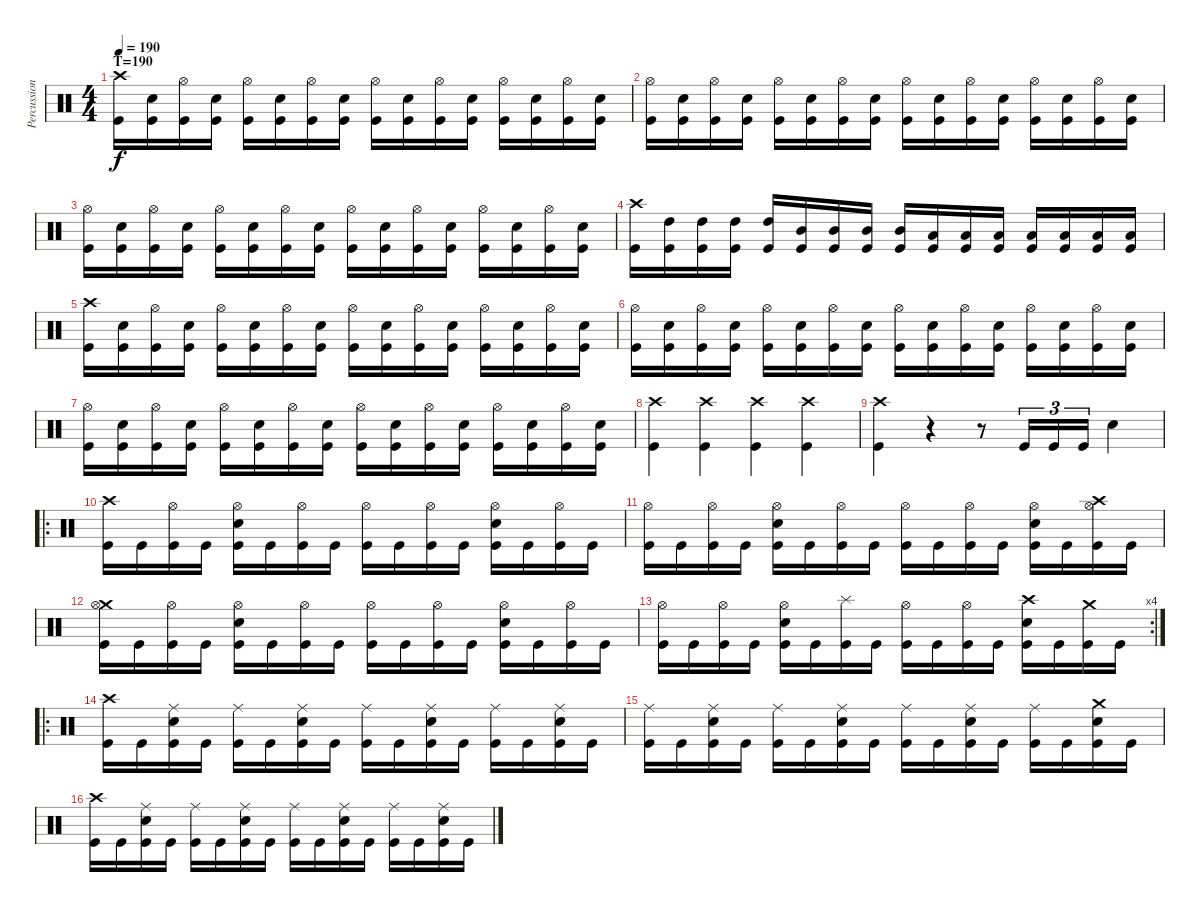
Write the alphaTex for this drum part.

\track ("Percussion" "Percussion") {instrument percussion}
\staff {score}
\articulation defaults
\ts (4 4)
\section ("" "T=190")
\tempo 190
\clef neutral
\ks c
("Crash high (hit)" "Kick (hit)").16{dy f} ("Electric Snare (hit)" "Kick (hit)").16 ("Hi-Hat (open)" "Kick (hit)").16 ("Electric Snare (hit)" "Kick (hit)").16 ("Hi-Hat (open)" "Kick (hit)").16 ("Electric Snare (hit)" "Kick (hit)").16 ("Hi-Hat (open)" "Kick (hit)").16 ("Electric Snare (hit)" "Kick (hit)").16 ("Hi-Hat (open)" "Kick (hit)").16 ("Electric Snare (hit)" "Kick (hit)").16 ("Hi-Hat (open)" "Kick (hit)").16 ("Electric Snare (hit)" "Kick (hit)").16 ("Hi-Hat (open)" "Kick (hit)").16 ("Electric Snare (hit)" "Kick (hit)").16 ("Hi-Hat (open)" "Kick (hit)").16 ("Electric Snare (hit)" "Kick (hit)").16 |
("Hi-Hat (open)" "Kick (hit)").16 ("Electric Snare (hit)" "Kick (hit)").16 ("Hi-Hat (open)" "Kick (hit)").16 ("Electric Snare (hit)" "Kick (hit)").16 ("Hi-Hat (open)" "Kick (hit)").16 ("Electric Snare (hit)" "Kick (hit)").16 ("Hi-Hat (open)" "Kick (hit)").16 ("Electric Snare (hit)" "Kick (hit)").16 ("Hi-Hat (open)" "Kick (hit)").16 ("Electric Snare (hit)" "Kick (hit)").16 ("Hi-Hat (open)" "Kick (hit)").16 ("Electric Snare (hit)" "Kick (hit)").16 ("Hi-Hat (open)" "Kick (hit)").16 ("Electric Snare (hit)" "Kick (hit)").16 ("Hi-Hat (open)" "Kick (hit)").16 ("Electric Snare (hit)" "Kick (hit)").16 |
("Hi-Hat (open)" "Kick (hit)").16 ("Electric Snare (hit)" "Kick (hit)").16 ("Hi-Hat (open)" "Kick (hit)").16 ("Electric Snare (hit)" "Kick (hit)").16 ("Hi-Hat (open)" "Kick (hit)").16 ("Electric Snare (hit)" "Kick (hit)").16 ("Hi-Hat (open)" "Kick (hit)").16 ("Electric Snare (hit)" "Kick (hit)").16 ("Hi-Hat (open)" "Kick (hit)").16 ("Electric Snare (hit)" "Kick (hit)").16 ("Hi-Hat (open)" "Kick (hit)").16 ("Electric Snare (hit)" "Kick (hit)").16 ("Hi-Hat (open)" "Kick (hit)").16 ("Electric Snare (hit)" "Kick (hit)").16 ("Hi-Hat (open)" "Kick (hit)").16 ("Electric Snare (hit)" "Kick (hit)").16 |
("Crash high (hit)" "Kick (hit)").16 ("High Tom (hit)" "Kick (hit)").16 ("High Tom (hit)" "Kick (hit)").16 ("High Tom (hit)" "Kick (hit)").16 ("High Tom (hit)" "Kick (hit)").16 ("Mid Tom (hit)" "Kick (hit)").16 ("Mid Tom (hit)" "Kick (hit)").16 ("Mid Tom (hit)" "Kick (hit)").16 ("Mid Tom (hit)" "Kick (hit)").16 ("Low Tom (hit)" "Kick (hit)").16 ("Low Tom (hit)" "Kick (hit)").16 ("Low Tom (hit)" "Kick (hit)").16 ("Low Tom (hit)" "Kick (hit)").16 ("Low Floor Tom (hit)" "Kick (hit)").16 ("Low Floor Tom (hit)" "Kick (hit)").16 ("Low Floor Tom (hit)" "Kick (hit)").16 |
("Crash high (hit)" "Kick (hit)").16 ("Electric Snare (hit)" "Kick (hit)").16 ("Hi-Hat (open)" "Kick (hit)").16 ("Electric Snare (hit)" "Kick (hit)").16 ("Hi-Hat (open)" "Kick (hit)").16 ("Electric Snare (hit)" "Kick (hit)").16 ("Hi-Hat (open)" "Kick (hit)").16 ("Electric Snare (hit)" "Kick (hit)").16 ("Hi-Hat (open)" "Kick (hit)").16 ("Electric Snare (hit)" "Kick (hit)").16 ("Hi-Hat (open)" "Kick (hit)").16 ("Electric Snare (hit)" "Kick (hit)").16 ("Hi-Hat (open)" "Kick (hit)").16 ("Electric Snare (hit)" "Kick (hit)").16 ("Hi-Hat (open)" "Kick (hit)").16 ("Electric Snare (hit)" "Kick (hit)").16 |
("Hi-Hat (open)" "Kick (hit)").16 ("Electric Snare (hit)" "Kick (hit)").16 ("Hi-Hat (open)" "Kick (hit)").16 ("Electric Snare (hit)" "Kick (hit)").16 ("Hi-Hat (open)" "Kick (hit)").16 ("Electric Snare (hit)" "Kick (hit)").16 ("Hi-Hat (open)" "Kick (hit)").16 ("Electric Snare (hit)" "Kick (hit)").16 ("Hi-Hat (open)" "Kick (hit)").16 ("Electric Snare (hit)" "Kick (hit)").16 ("Hi-Hat (open)" "Kick (hit)").16 ("Electric Snare (hit)" "Kick (hit)").16 ("Hi-Hat (open)" "Kick (hit)").16 ("Electric Snare (hit)" "Kick (hit)").16 ("Hi-Hat (open)" "Kick (hit)").16 ("Electric Snare (hit)" "Kick (hit)").16 |
("Hi-Hat (open)" "Kick (hit)").16 ("Electric Snare (hit)" "Kick (hit)").16 ("Hi-Hat (open)" "Kick (hit)").16 ("Electric Snare (hit)" "Kick (hit)").16 ("Hi-Hat (open)" "Kick (hit)").16 ("Electric Snare (hit)" "Kick (hit)").16 ("Hi-Hat (open)" "Kick (hit)").16 ("Electric Snare (hit)" "Kick (hit)").16 ("Hi-Hat (open)" "Kick (hit)").16 ("Electric Snare (hit)" "Kick (hit)").16 ("Hi-Hat (open)" "Kick (hit)").16 ("Electric Snare (hit)" "Kick (hit)").16 ("Hi-Hat (open)" "Kick (hit)").16 ("Electric Snare (hit)" "Kick (hit)").16 ("Hi-Hat (open)" "Kick (hit)").16 ("Electric Snare (hit)" "Kick (hit)").16 |
("Crash high (hit)" "Kick (hit)").4 ("Crash high (hit)" "Kick (hit)").4 ("Crash high (hit)" "Kick (hit)").4 ("Crash high (hit)" "Kick (hit)").4 |
("Crash high (hit)" "Kick (hit)").4 r.4 r.8 "Kick (hit)".16{tu (3 2)} "Kick (hit)".16{tu (3 2)} "Kick (hit)".16{tu (3 2)} "Electric Snare (hit)".4 |
\ro
("Crash high (hit)" "Kick (hit)").16 "Kick (hit)".16 ("Hi-Hat (open)" "Kick (hit)").16 "Kick (hit)".16 ("Hi-Hat (open)" "Electric Snare (hit)" "Kick (hit)").16 "Kick (hit)".16 ("Hi-Hat (open)" "Kick (hit)").16 "Kick (hit)".16 ("Hi-Hat (open)" "Kick (hit)").16 "Kick (hit)".16 ("Hi-Hat (open)" "Kick (hit)").16 "Kick (hit)".16 ("Hi-Hat (open)" "Electric Snare (hit)" "Kick (hit)").16 "Kick (hit)".16 ("Hi-Hat (open)" "Kick (hit)").16 "Kick (hit)".16 |
("Hi-Hat (open)" "Kick (hit)").16 "Kick (hit)".16 ("Hi-Hat (open)" "Kick (hit)").16 "Kick (hit)".16 ("Hi-Hat (open)" "Electric Snare (hit)" "Kick (hit)").16 "Kick (hit)".16 ("Hi-Hat (open)" "Kick (hit)").16 "Kick (hit)".16 ("Hi-Hat (open)" "Kick (hit)").16 "Kick (hit)".16 ("Hi-Hat (open)" "Kick (hit)").16 "Kick (hit)".16 ("Hi-Hat (open)" "Electric Snare (hit)" "Kick (hit)").16 "Kick (hit)".16 ("Crash high (hit)" "Hi-Hat (open)" "Kick (hit)").16 "Kick (hit)".16 |
("Crash medium (hit)" "Hi-Hat (open)" "Kick (hit)").16 "Kick (hit)".16 ("Hi-Hat (open)" "Kick (hit)").16 "Kick (hit)".16 ("Hi-Hat (open)" "Electric Snare (hit)" "Kick (hit)").16 "Kick (hit)".16 ("Hi-Hat (open)" "Kick (hit)").16 "Kick (hit)".16 ("Hi-Hat (open)" "Kick (hit)").16 "Kick (hit)".16 ("Hi-Hat (open)" "Kick (hit)").16 "Kick (hit)".16 ("Hi-Hat (open)" "Electric Snare (hit)" "Kick (hit)").16 "Kick (hit)".16 ("Hi-Hat (open)" "Kick (hit)").16 "Kick (hit)".16 |
\rc 4
("Hi-Hat (open)" "Kick (hit)").16 "Kick (hit)".16 ("Hi-Hat (open)" "Kick (hit)").16 "Kick (hit)".16 ("Hi-Hat (open)" "Electric Snare (hit)" "Kick (hit)").16 "Kick (hit)".16 ("Splash (hit)" "Kick (hit)").16 "Kick (hit)".16 ("Hi-Hat (open)" "Kick (hit)").16 "Kick (hit)".16 ("Hi-Hat (open)" "Kick (hit)").16 "Kick (hit)".16 ("Crash high (hit)" "Electric Snare (hit)" "Kick (hit)").16 "Kick (hit)".16 ("Crash medium (hit)" "Kick (hit)").16 "Kick (hit)".16 |
\ro
("Crash high (hit)" "Kick (hit)").16 "Kick (hit)".16 ("Ride (middle)" "Electric Snare (hit)" "Kick (hit)").16 "Kick (hit)".16 ("Ride (middle)" "Kick (hit)").16 "Kick (hit)".16 ("Ride (middle)" "Electric Snare (hit)" "Kick (hit)").16 "Kick (hit)".16 ("Ride (middle)" "Kick (hit)").16 "Kick (hit)".16 ("Ride (middle)" "Electric Snare (hit)" "Kick (hit)").16 "Kick (hit)".16 ("Ride (middle)" "Kick (hit)").16 "Kick (hit)".16 ("Ride (middle)" "Electric Snare (hit)" "Kick (hit)").16 "Kick (hit)".16 |
("Ride (middle)" "Kick (hit)").16 "Kick (hit)".16 ("Ride (middle)" "Electric Snare (hit)" "Kick (hit)").16 "Kick (hit)".16 ("Ride (middle)" "Kick (hit)").16 "Kick (hit)".16 ("Ride (middle)" "Electric Snare (hit)" "Kick (hit)").16 "Kick (hit)".16 ("Ride (middle)" "Kick (hit)").16 "Kick (hit)".16 ("Ride (middle)" "Electric Snare (hit)" "Kick (hit)").16 "Kick (hit)".16 ("Ride (middle)" "Kick (hit)").16 "Kick (hit)".16 ("Crash medium (hit)" "Electric Snare (hit)" "Kick (hit)").16 "Kick (hit)".16 |
("Crash high (hit)" "Kick (hit)").16 "Kick (hit)".16 ("Ride (middle)" "Electric Snare (hit)" "Kick (hit)").16 "Kick (hit)".16 ("Ride (middle)" "Kick (hit)").16 "Kick (hit)".16 ("Ride (middle)" "Electric Snare (hit)" "Kick (hit)").16 "Kick (hit)".16 ("Ride (middle)" "Kick (hit)").16 "Kick (hit)".16 ("Ride (middle)" "Electric Snare (hit)" "Kick (hit)").16 "Kick (hit)".16 ("Ride (middle)" "Kick (hit)").16 "Kick (hit)".16 ("Ride (middle)" "Electric Snare (hit)" "Kick (hit)").16 "Kick (hit)".16
